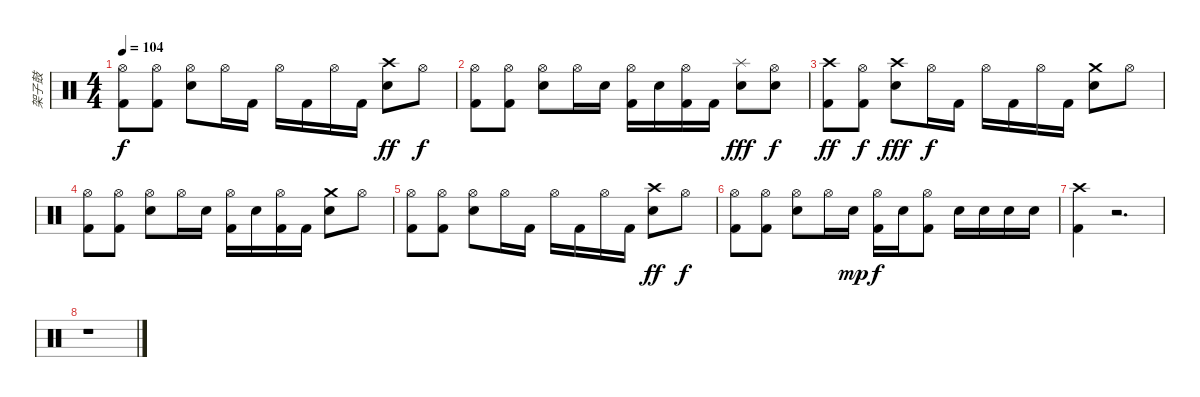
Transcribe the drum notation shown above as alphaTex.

\track ("架子鼓" "架子鼓") {instrument percussion}
\staff {score}
\articulation defaults
\ts (4 4)
\tempo 104
\clef neutral
\ks c
("Hi-Hat (open)" "Kick (hit) 2").8{dy f} ("Hi-Hat (open)" "Kick (hit) 2").8 ("Hi-Hat (open)" "Electric Snare (hit)").8 "Hi-Hat (open)".16 "Kick (hit) 2".16 "Hi-Hat (open)".16 "Kick (hit) 2".16 "Hi-Hat (open)".16 "Kick (hit) 2".16 ("Crash high (hit)" "Electric Snare (hit)").8{dy ff} "Hi-Hat (open)".8{dy f} |
("Hi-Hat (open)" "Kick (hit) 2").8 ("Hi-Hat (open)" "Kick (hit) 2").8 ("Hi-Hat (open)" "Electric Snare (hit)").8 "Hi-Hat (open)".16 "Electric Snare (hit)".16 ("Hi-Hat (open)" "Kick (hit) 2").16 "Electric Snare (hit)".16 ("Hi-Hat (open)" "Kick (hit) 2").16 "Kick (hit) 2".16 ("Splash (hit)" "Electric Snare (hit)").8{dy fff} ("Hi-Hat (open)" "Electric Snare (hit)").8{dy f} |
("Crash high (hit)" "Kick (hit) 2").8{dy ff} ("Hi-Hat (open)" "Kick (hit) 2").8{dy f} ("Crash high (hit)" "Electric Snare (hit)").8{dy fff} "Hi-Hat (open)".16{dy f} "Kick (hit) 2".16 "Hi-Hat (open)".16 "Kick (hit) 2".16 "Hi-Hat (open)".16 "Kick (hit) 2".16 ("Crash medium (hit)" "Electric Snare (hit)").8 "Hi-Hat (open)".8 |
("Hi-Hat (open)" "Kick (hit) 2").8 ("Hi-Hat (open)" "Kick (hit) 2").8 ("Hi-Hat (open)" "Electric Snare (hit)").8 "Hi-Hat (open)".16 "Electric Snare (hit)".16 ("Hi-Hat (open)" "Kick (hit) 2").16 "Electric Snare (hit)".16 ("Hi-Hat (open)" "Kick (hit) 2").16 "Kick (hit) 2".16 ("Crash medium (hit)" "Electric Snare (hit)").8 "Hi-Hat (open)".8 |
("Hi-Hat (open)" "Kick (hit) 2").8 ("Hi-Hat (open)" "Kick (hit) 2").8 ("Hi-Hat (open)" "Electric Snare (hit)").8 "Hi-Hat (open)".16 "Kick (hit) 2".16 "Hi-Hat (open)".16 "Kick (hit) 2".16 "Hi-Hat (open)".16 "Kick (hit) 2".16 ("Crash high (hit)" "Electric Snare (hit)").8{dy ff} "Hi-Hat (open)".8{dy f} |
("Hi-Hat (open)" "Kick (hit) 2").8 ("Hi-Hat (open)" "Kick (hit) 2").8 ("Hi-Hat (open)" "Electric Snare (hit)").8 "Hi-Hat (open)".16 "Electric Snare (hit)".16{dy mp} ("Hi-Hat (open)" "Kick (hit) 2").16{dy f} "Electric Snare (hit)".16 ("Hi-Hat (open)" "Kick (hit) 2").8 "Electric Snare (hit)".16 "Electric Snare (hit)".16 "Electric Snare (hit)".16 "Electric Snare (hit)".16 |
("Crash high (hit)" "Kick (hit) 2").4 r.2{d} |
r.1
